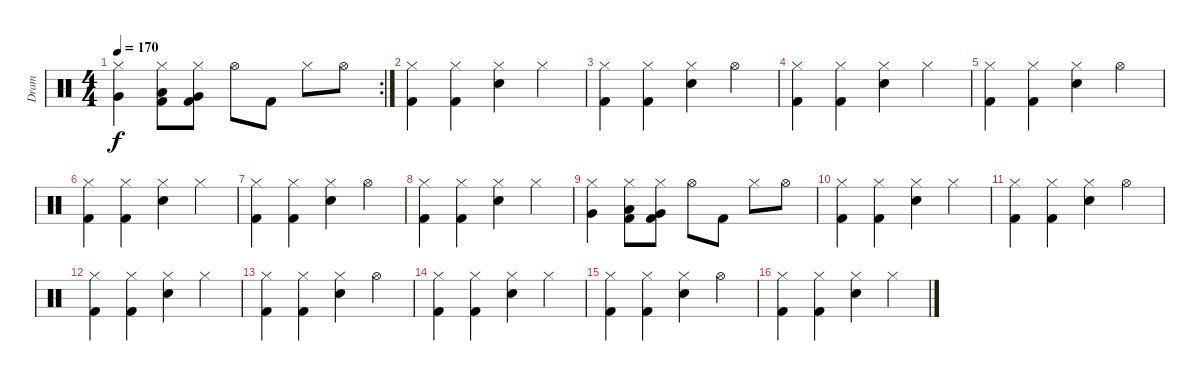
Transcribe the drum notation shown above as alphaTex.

\track ("Dram" "Dram") {instrument percussion}
\staff {score}
\articulation defaults
\rc 2
\ts (4 4)
\tempo 170
\clef neutral
\ks c
("Hi-Hat (closed)" "Very Low Tom (hit)").4{dy f} ("Hi-Hat (closed)" "Low Tom (hit)" "Kick (hit) 2").8 ("Hi-Hat (closed)" "Very Low Tom (hit)" "Kick (hit) 2").8 "Hi-Hat (open)".8 "Kick (hit) 2".8 "Hi-Hat (closed)".8 "Hi-Hat (open)".8 |
("Hi-Hat (closed)" "Kick (hit) 2").4 ("Hi-Hat (closed)" "Kick (hit) 2").4 ("Hi-Hat (closed)" "Electric Snare (hit)").4 "Hi-Hat (closed)".4 |
("Hi-Hat (closed)" "Kick (hit) 2").4 ("Hi-Hat (closed)" "Kick (hit) 2").4 ("Hi-Hat (closed)" "Electric Snare (hit)").4 "Hi-Hat (open)".4 |
("Hi-Hat (closed)" "Kick (hit) 2").4 ("Hi-Hat (closed)" "Kick (hit) 2").4 ("Hi-Hat (closed)" "Electric Snare (hit)").4 "Hi-Hat (closed)".4 |
("Hi-Hat (closed)" "Kick (hit) 2").4 ("Hi-Hat (closed)" "Kick (hit) 2").4 ("Hi-Hat (closed)" "Electric Snare (hit)").4 "Hi-Hat (open)".4 |
("Hi-Hat (closed)" "Kick (hit) 2").4 ("Hi-Hat (closed)" "Kick (hit) 2").4 ("Hi-Hat (closed)" "Electric Snare (hit)").4 "Hi-Hat (closed)".4 |
("Hi-Hat (closed)" "Kick (hit) 2").4 ("Hi-Hat (closed)" "Kick (hit) 2").4 ("Hi-Hat (closed)" "Electric Snare (hit)").4 "Hi-Hat (open)".4 |
("Hi-Hat (closed)" "Kick (hit) 2").4 ("Hi-Hat (closed)" "Kick (hit) 2").4 ("Hi-Hat (closed)" "Electric Snare (hit)").4 "Hi-Hat (closed)".4 |
("Hi-Hat (closed)" "Very Low Tom (hit)").4 ("Hi-Hat (closed)" "Low Tom (hit)" "Kick (hit) 2").8 ("Hi-Hat (closed)" "Very Low Tom (hit)" "Kick (hit) 2").8 "Hi-Hat (open)".8 "Kick (hit) 2".8 "Hi-Hat (closed)".8 "Hi-Hat (open)".8 |
("Hi-Hat (closed)" "Kick (hit) 2").4 ("Hi-Hat (closed)" "Kick (hit) 2").4 ("Hi-Hat (closed)" "Electric Snare (hit)").4 "Hi-Hat (closed)".4 |
("Hi-Hat (closed)" "Kick (hit) 2").4 ("Hi-Hat (closed)" "Kick (hit) 2").4 ("Hi-Hat (closed)" "Electric Snare (hit)").4 "Hi-Hat (open)".4 |
("Hi-Hat (closed)" "Kick (hit) 2").4 ("Hi-Hat (closed)" "Kick (hit) 2").4 ("Hi-Hat (closed)" "Electric Snare (hit)").4 "Hi-Hat (closed)".4 |
("Hi-Hat (closed)" "Kick (hit) 2").4 ("Hi-Hat (closed)" "Kick (hit) 2").4 ("Hi-Hat (closed)" "Electric Snare (hit)").4 "Hi-Hat (open)".4 |
("Hi-Hat (closed)" "Kick (hit) 2").4 ("Hi-Hat (closed)" "Kick (hit) 2").4 ("Hi-Hat (closed)" "Electric Snare (hit)").4 "Hi-Hat (closed)".4 |
("Hi-Hat (closed)" "Kick (hit) 2").4 ("Hi-Hat (closed)" "Kick (hit) 2").4 ("Hi-Hat (closed)" "Electric Snare (hit)").4 "Hi-Hat (open)".4 |
("Hi-Hat (closed)" "Kick (hit) 2").4 ("Hi-Hat (closed)" "Kick (hit) 2").4 ("Hi-Hat (closed)" "Electric Snare (hit)").4 "Hi-Hat (closed)".4
